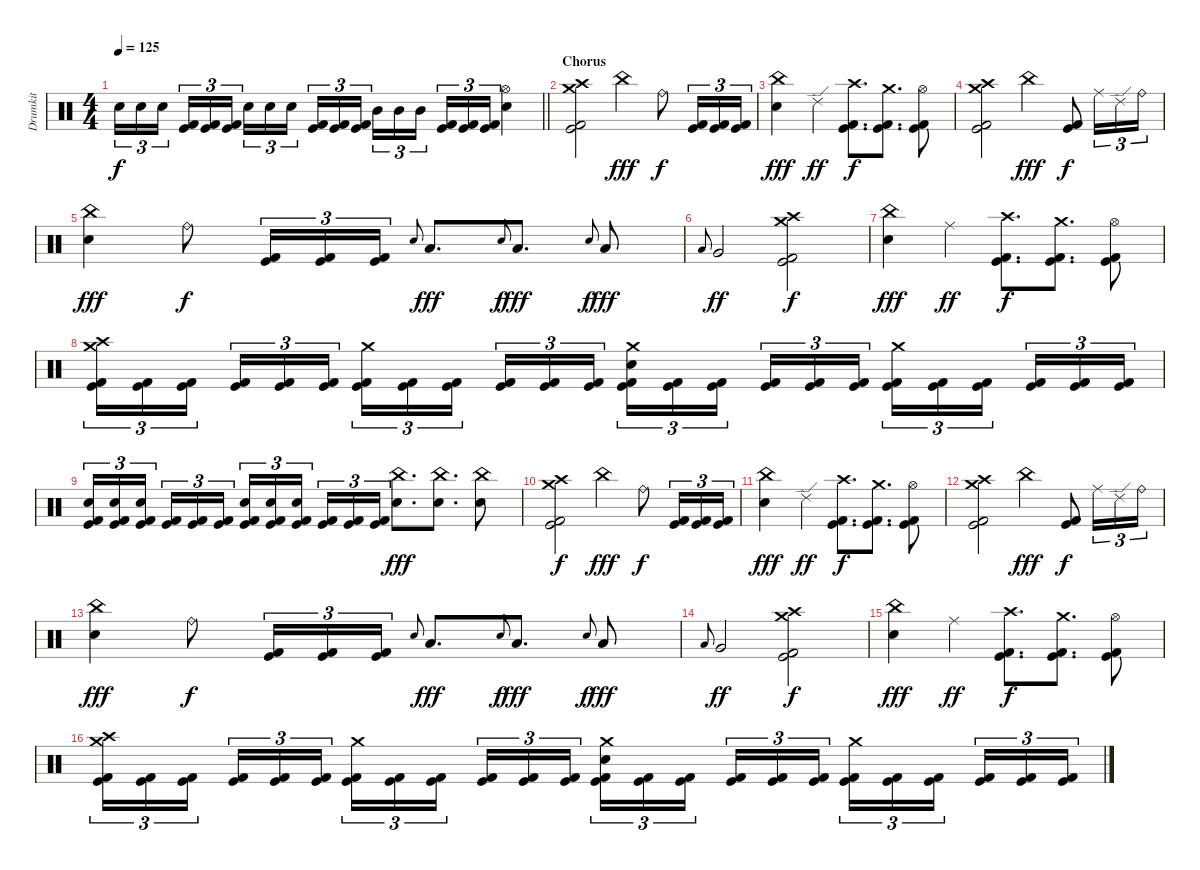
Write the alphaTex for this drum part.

\track ("Drumkit" "Drumkit") {instrument percussion}
\staff {score}
\articulation defaults
\ts (4 4)
\tempo 125
\clef neutral
\barLineRight lightlight
\ks c "Electric Snare (hit)".16{tu (3 2) dy f} "Electric Snare (hit)".16{tu (3 2)} "Electric Snare (hit)".16{tu (3 2) beam splitsecondary}
("Kick (hit)" "Kick (hit) 2").16{tu (3 2)} ("Kick (hit)" "Kick (hit) 2").16{tu (3 2)} ("Kick (hit)" "Kick (hit) 2").16{tu (3 2)} "Electric Snare (hit)".16{tu (3 2)} "Electric Snare (hit)".16{tu (3 2)} "Electric Snare (hit)".16{tu (3 2) beam splitsecondary} ("Kick (hit)" "Kick (hit) 2").16{tu (3 2)} ("Kick (hit)" "Kick (hit) 2").16{tu (3 2)} ("Kick (hit)" "Kick (hit) 2").16{tu (3 2)} "Mid Tom (hit)".16{tu (3 2)} "Mid Tom (hit)".16{tu (3 2)} "Mid Tom (hit)".16{tu (3 2) beam splitsecondary} ("Kick (hit)" "Kick (hit) 2").16{tu (3 2)} ("Kick (hit)" "Kick (hit) 2").16{tu (3 2)} ("Kick (hit)" "Kick (hit) 2").16{tu (3 2)} ("Hi-Hat (open)" "Electric Snare (hit)").4 |
\section ("" "Chorus")
("Crash high (hit)" "Crash medium (hit)" "Kick (hit)" "Kick (hit) 2").2 "China (hit)".4{dy fff} "Ride (bell)".8{dy f} ("Kick (hit)" "Kick (hit) 2").16{tu (3 2)} ("Kick (hit)" "Kick (hit) 2").16{tu (3 2)} ("Kick (hit)" "Kick (hit) 2").16{tu (3 2)} |
("China (hit)" "Electric Snare (hit)").4{dy fff} "Ride (edge) 2".4{dy ff} ("Crash high (hit)" "Kick (hit)" "Kick (hit) 2").8{d dy f} ("Crash medium (hit)" "Kick (hit)" "Kick (hit) 2").8{d} ("Hi-Hat (open)" "Kick (hit)" "Kick (hit) 2").8 |
("Crash high (hit)" "Crash medium (hit)" "Kick (hit)" "Kick (hit) 2").2 "China (hit)".4{dy fff} ("Kick (hit)" "Kick (hit) 2").8{dy f} "Ride (middle)".16{tu (3 2)} "Ride (edge) 2".16{tu (3 2)} "Ride (bell)".16{tu (3 2)} |
("China (hit)" "Electric Snare (hit)").4{dy fff} "Ride (bell)".8{dy f} ("Kick (hit)" "Kick (hit) 2").16{tu (3 2)} ("Kick (hit)" "Kick (hit) 2").16{tu (3 2)} ("Kick (hit)" "Kick (hit) 2").16{tu (3 2)} "Electric Snare (hit)".8{gr onbeat} "Low Floor Tom (hit)".8{d dy fff} "Electric Snare (hit)".8{gr onbeat dy f} "Low Floor Tom (hit)".8{d dy fff} "Electric Snare (hit)".8{gr onbeat dy f} "Low Floor Tom (hit)".8{dy fff} |
"Low Floor Tom (hit)".8{gr onbeat} "Very Low Tom (hit)".2{dy ff} ("Crash high (hit)" "Crash medium (hit)" "Kick (hit)" "Kick (hit) 2").2{dy f} |
("China (hit)" "Electric Snare (hit)").4{dy fff} "Ride (middle)".4{dy ff} ("Crash high (hit)" "Kick (hit)" "Kick (hit) 2").8{d dy f} ("Crash medium (hit)" "Kick (hit)" "Kick (hit) 2").8{d} ("Hi-Hat (open)" "Kick (hit)" "Kick (hit) 2").8 |
("Crash high (hit)" "Crash medium (hit)" "Kick (hit)" "Kick (hit) 2").16{tu (3 2)} ("Kick (hit)" "Kick (hit) 2").16{tu (3 2)} ("Kick (hit)" "Kick (hit) 2").16{tu (3 2) beam splitsecondary} ("Kick (hit)" "Kick (hit) 2").16{tu (3 2)} ("Kick (hit)" "Kick (hit) 2").16{tu (3 2)} ("Kick (hit)" "Kick (hit) 2").16{tu (3 2)} ("Crash medium (hit)" "Kick (hit)" "Kick (hit) 2").16{tu (3 2)} ("Kick (hit)" "Kick (hit) 2").16{tu (3 2)} ("Kick (hit)" "Kick (hit) 2").16{tu (3 2) beam splitsecondary} ("Kick (hit)" "Kick (hit) 2").16{tu (3 2)} ("Kick (hit)" "Kick (hit) 2").16{tu (3 2)} ("Kick (hit)" "Kick (hit) 2").16{tu (3 2)} ("Crash medium (hit)" "Electric Snare (hit)" "Kick (hit)" "Kick (hit) 2").16{tu (3 2)} ("Kick (hit)" "Kick (hit) 2").16{tu (3 2)} ("Kick (hit)" "Kick (hit) 2").16{tu (3 2) beam splitsecondary} ("Kick (hit)" "Kick (hit) 2").16{tu (3 2)} ("Kick (hit)" "Kick (hit) 2").16{tu (3 2)} ("Kick (hit)" "Kick (hit) 2").16{tu (3 2)} ("Crash medium (hit)" "Kick (hit)" "Kick (hit) 2").16{tu (3 2)} ("Kick (hit)" "Kick (hit) 2").16{tu (3 2)} ("Kick (hit)" "Kick (hit) 2").16{tu (3 2) beam splitsecondary} ("Kick (hit)" "Kick (hit) 2").16{tu (3 2)} ("Kick (hit)" "Kick (hit) 2").16{tu (3 2)} ("Kick (hit)" "Kick (hit) 2").16{tu (3 2)} |
("Electric Snare (hit)" "Kick (hit)" "Kick (hit) 2").16{tu (3 2)} ("Electric Snare (hit)" "Kick (hit)" "Kick (hit) 2").16{tu (3 2)} ("Electric Snare (hit)" "Kick (hit)" "Kick (hit) 2").16{tu (3 2) beam splitsecondary} ("Kick (hit)" "Kick (hit) 2").16{tu (3 2)} ("Kick (hit)" "Kick (hit) 2").16{tu (3 2)} ("Kick (hit)" "Kick (hit) 2").16{tu (3 2)} ("Electric Snare (hit)" "Kick (hit)" "Kick (hit) 2").16{tu (3 2)} ("Electric Snare (hit)" "Kick (hit)" "Kick (hit) 2").16{tu (3 2)} ("Electric Snare (hit)" "Kick (hit)" "Kick (hit) 2").16{tu (3 2) beam splitsecondary} ("Kick (hit)" "Kick (hit) 2").16{tu (3 2)} ("Kick (hit)" "Kick (hit) 2").16{tu (3 2)} ("Kick (hit)" "Kick (hit) 2").16{tu (3 2)} ("China (hit)" "Electric Snare (hit)").8{d dy fff} ("China (hit)" "Electric Snare (hit)").8{d} ("China (hit)" "Electric Snare (hit)").8 |
("Crash high (hit)" "Crash medium (hit)" "Kick (hit)" "Kick (hit) 2").2{dy f} "China (hit)".4{dy fff} "Ride (bell)".8{dy f} ("Kick (hit)" "Kick (hit) 2").16{tu (3 2)} ("Kick (hit)" "Kick (hit) 2").16{tu (3 2)} ("Kick (hit)" "Kick (hit) 2").16{tu (3 2)} |
("China (hit)" "Electric Snare (hit)").4{dy fff} "Ride (edge) 2".4{dy ff} ("Crash high (hit)" "Kick (hit)" "Kick (hit) 2").8{d dy f} ("Crash medium (hit)" "Kick (hit)" "Kick (hit) 2").8{d} ("Hi-Hat (open)" "Kick (hit)" "Kick (hit) 2").8 |
("Crash high (hit)" "Crash medium (hit)" "Kick (hit)" "Kick (hit) 2").2 "China (hit)".4{dy fff} ("Kick (hit)" "Kick (hit) 2").8{dy f} "Ride (middle)".16{tu (3 2)} "Ride (edge) 2".16{tu (3 2)} "Ride (bell)".16{tu (3 2)} |
("China (hit)" "Electric Snare (hit)").4{dy fff} "Ride (bell)".8{dy f} ("Kick (hit)" "Kick (hit) 2").16{tu (3 2)} ("Kick (hit)" "Kick (hit) 2").16{tu (3 2)} ("Kick (hit)" "Kick (hit) 2").16{tu (3 2)} "Electric Snare (hit)".8{gr onbeat} "Low Floor Tom (hit)".8{d dy fff} "Electric Snare (hit)".8{gr onbeat dy f} "Low Floor Tom (hit)".8{d dy fff} "Electric Snare (hit)".8{gr onbeat dy f} "Low Floor Tom (hit)".8{dy fff} |
"Low Floor Tom (hit)".8{gr onbeat} "Very Low Tom (hit)".2{dy ff} ("Crash high (hit)" "Crash medium (hit)" "Kick (hit)" "Kick (hit) 2").2{dy f} |
("China (hit)" "Electric Snare (hit)").4{dy fff} "Ride (middle)".4{dy ff} ("Crash high (hit)" "Kick (hit)" "Kick (hit) 2").8{d dy f} ("Crash medium (hit)" "Kick (hit)" "Kick (hit) 2").8{d} ("Hi-Hat (open)" "Kick (hit)" "Kick (hit) 2").8 |
("Crash high (hit)" "Crash medium (hit)" "Kick (hit)" "Kick (hit) 2").16{tu (3 2)} ("Kick (hit)" "Kick (hit) 2").16{tu (3 2)} ("Kick (hit)" "Kick (hit) 2").16{tu (3 2) beam splitsecondary} ("Kick (hit)" "Kick (hit) 2").16{tu (3 2)} ("Kick (hit)" "Kick (hit) 2").16{tu (3 2)} ("Kick (hit)" "Kick (hit) 2").16{tu (3 2)} ("Crash medium (hit)" "Kick (hit)" "Kick (hit) 2").16{tu (3 2)} ("Kick (hit)" "Kick (hit) 2").16{tu (3 2)} ("Kick (hit)" "Kick (hit) 2").16{tu (3 2) beam splitsecondary} ("Kick (hit)" "Kick (hit) 2").16{tu (3 2)} ("Kick (hit)" "Kick (hit) 2").16{tu (3 2)} ("Kick (hit)" "Kick (hit) 2").16{tu (3 2)} ("Crash medium (hit)" "Electric Snare (hit)" "Kick (hit)" "Kick (hit) 2").16{tu (3 2)} ("Kick (hit)" "Kick (hit) 2").16{tu (3 2)} ("Kick (hit)" "Kick (hit) 2").16{tu (3 2) beam splitsecondary} ("Kick (hit)" "Kick (hit) 2").16{tu (3 2)} ("Kick (hit)" "Kick (hit) 2").16{tu (3 2)} ("Kick (hit)" "Kick (hit) 2").16{tu (3 2)} ("Crash medium (hit)" "Kick (hit)" "Kick (hit) 2").16{tu (3 2)} ("Kick (hit)" "Kick (hit) 2").16{tu (3 2)} ("Kick (hit)" "Kick (hit) 2").16{tu (3 2) beam splitsecondary} ("Kick (hit)" "Kick (hit) 2").16{tu (3 2)} ("Kick (hit)" "Kick (hit) 2").16{tu (3 2)} ("Kick (hit)" "Kick (hit) 2").16{tu (3 2)}
